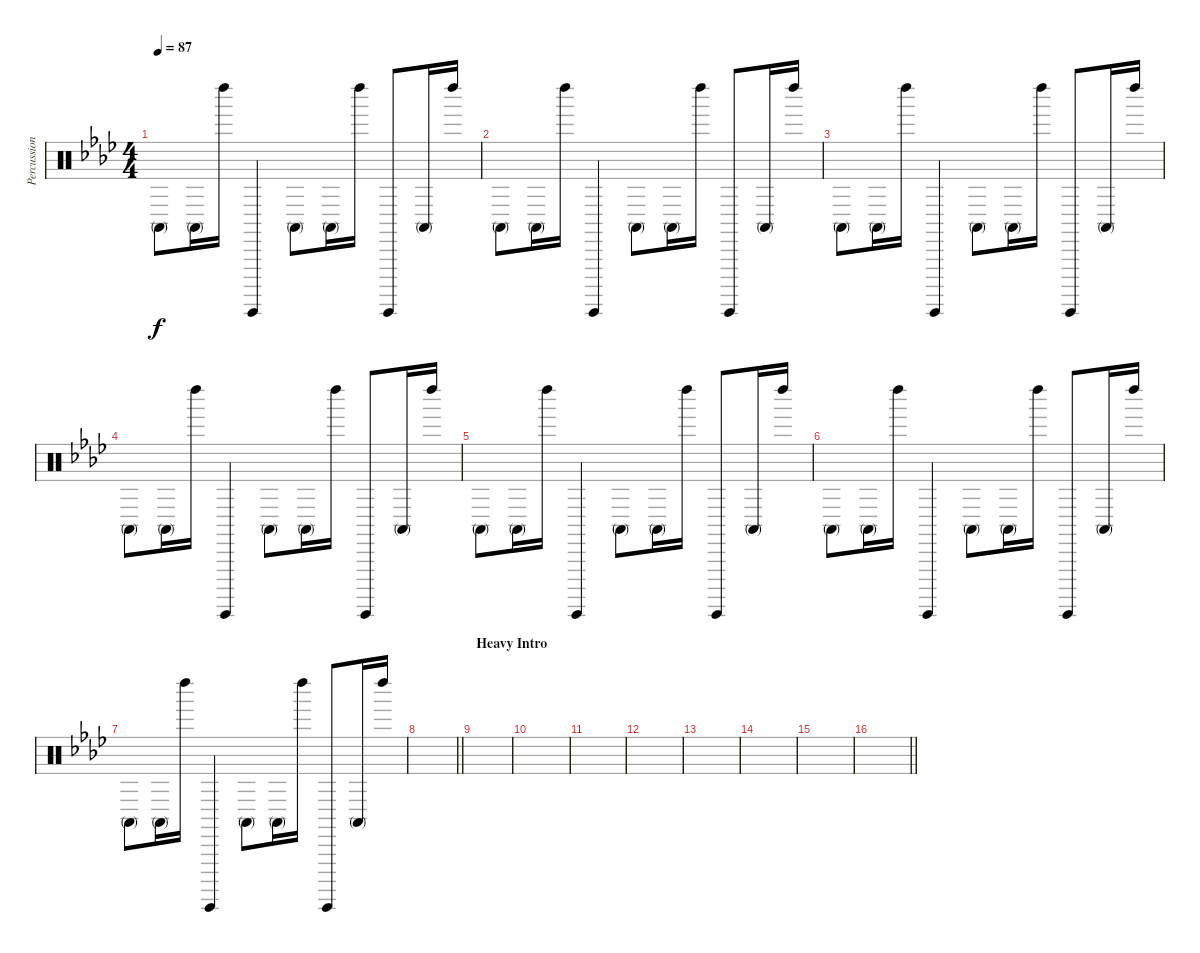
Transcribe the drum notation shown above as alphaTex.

\track ("Percussion" "Percussion") {instrument percussion}
\staff {score}
\articulation defaults
\ts (4 4)
\section ("" " ")
\tempo 87
\clef neutral
\ks fminor "Conga high (mute)".8{dy f} "Conga high (mute)".16 "Left Maraca (hit)".16 "Guiro (hit)".4 "Conga high (mute)".8 "Conga high (mute)".16 "Left Maraca (hit)".16 "Guiro (hit)".8 "Conga high (mute)".16 "Left Maraca (hit)".16
|
"Conga high (mute)".8 "Conga high (mute)".16 "Left Maraca (hit)".16 "Guiro (hit)".4 "Conga high (mute)".8 "Conga high (mute)".16 "Left Maraca (hit)".16 "Guiro (hit)".8 "Conga high (mute)".16 "Left Maraca (hit)".16 |
"Conga high (mute)".8 "Conga high (mute)".16 "Left Maraca (hit)".16 "Guiro (hit)".4 "Conga high (mute)".8 "Conga high (mute)".16 "Left Maraca (hit)".16 "Guiro (hit)".8 "Conga high (mute)".16 "Left Maraca (hit)".16 |
"Conga high (mute)".8 "Conga high (mute)".16 "Left Maraca (hit)".16 "Guiro (hit)".4 "Conga high (mute)".8 "Conga high (mute)".16 "Left Maraca (hit)".16 "Guiro (hit)".8 "Conga high (mute)".16 "Left Maraca (hit)".16 |
"Conga high (mute)".8 "Conga high (mute)".16 "Left Maraca (hit)".16 "Guiro (hit)".4 "Conga high (mute)".8 "Conga high (mute)".16 "Left Maraca (hit)".16 "Guiro (hit)".8 "Conga high (mute)".16 "Left Maraca (hit)".16 |
"Conga high (mute)".8 "Conga high (mute)".16 "Left Maraca (hit)".16 "Guiro (hit)".4 "Conga high (mute)".8 "Conga high (mute)".16 "Left Maraca (hit)".16 "Guiro (hit)".8 "Conga high (mute)".16 "Left Maraca (hit)".16 |
"Conga high (mute)".8 "Conga high (mute)".16 "Left Maraca (hit)".16 "Guiro (hit)".4 "Conga high (mute)".8 "Conga high (mute)".16 "Left Maraca (hit)".16 "Guiro (hit)".8 "Conga high (mute)".16 "Left Maraca (hit)".16 |
\barLineRight lightlight
|
\section ("" "Heavy Intro")
|
|
|
|
|
|
|
\barLineRight lightlight
